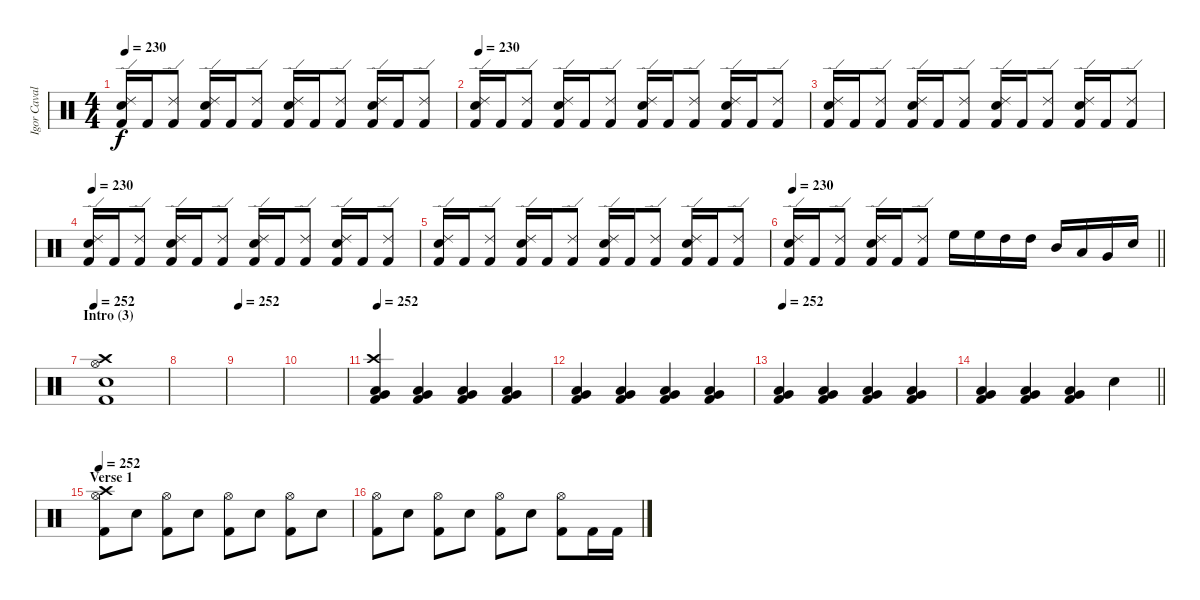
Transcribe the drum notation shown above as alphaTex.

\track ("Igor Cavalera" "Igor Caval") {instrument percussion}
\staff {score}
\articulation defaults
\ts (4 4)
\tempo 230
\clef neutral
\ks c
("Ride (edge) 2" "Electric Snare (hit)" "Kick (hit) 2").16{dy f} "Kick (hit) 2".16 ("Ride (edge) 2" "Kick (hit) 2").8 ("Ride (edge) 2" "Electric Snare (hit)" "Kick (hit) 2").16 "Kick (hit) 2".16 ("Ride (edge) 2" "Kick (hit) 2").8 ("Ride (edge) 2" "Electric Snare (hit)" "Kick (hit) 2").16 "Kick (hit) 2".16 ("Ride (edge) 2" "Kick (hit) 2").8 ("Ride (edge) 2" "Electric Snare (hit)" "Kick (hit) 2").16 "Kick (hit) 2".16 ("Ride (edge) 2" "Kick (hit) 2").8 |
\tempo 230
("Ride (edge) 2" "Electric Snare (hit)" "Kick (hit) 2").16 "Kick (hit) 2".16 ("Ride (edge) 2" "Kick (hit) 2").8 ("Ride (edge) 2" "Electric Snare (hit)" "Kick (hit) 2").16 "Kick (hit) 2".16 ("Ride (edge) 2" "Kick (hit) 2").8 ("Ride (edge) 2" "Electric Snare (hit)" "Kick (hit) 2").16 "Kick (hit) 2".16 ("Ride (edge) 2" "Kick (hit) 2").8 ("Ride (edge) 2" "Electric Snare (hit)" "Kick (hit) 2").16 "Kick (hit) 2".16 ("Ride (edge) 2" "Kick (hit) 2").8 |
("Ride (edge) 2" "Electric Snare (hit)" "Kick (hit) 2").16 "Kick (hit) 2".16 ("Ride (edge) 2" "Kick (hit) 2").8 ("Ride (edge) 2" "Electric Snare (hit)" "Kick (hit) 2").16 "Kick (hit) 2".16 ("Ride (edge) 2" "Kick (hit) 2").8 ("Ride (edge) 2" "Electric Snare (hit)" "Kick (hit) 2").16 "Kick (hit) 2".16 ("Ride (edge) 2" "Kick (hit) 2").8 ("Ride (edge) 2" "Electric Snare (hit)" "Kick (hit) 2").16 "Kick (hit) 2".16 ("Ride (edge) 2" "Kick (hit) 2").8 |
\tempo 230
("Ride (edge) 2" "Electric Snare (hit)" "Kick (hit) 2").16 "Kick (hit) 2".16 ("Ride (edge) 2" "Kick (hit) 2").8 ("Ride (edge) 2" "Electric Snare (hit)" "Kick (hit) 2").16 "Kick (hit) 2".16 ("Ride (edge) 2" "Kick (hit) 2").8 ("Ride (edge) 2" "Electric Snare (hit)" "Kick (hit) 2").16 "Kick (hit) 2".16 ("Ride (edge) 2" "Kick (hit) 2").8 ("Ride (edge) 2" "Electric Snare (hit)" "Kick (hit) 2").16 "Kick (hit) 2".16 ("Ride (edge) 2" "Kick (hit) 2").8 |
("Ride (edge) 2" "Electric Snare (hit)" "Kick (hit) 2").16 "Kick (hit) 2".16 ("Ride (edge) 2" "Kick (hit) 2").8 ("Ride (edge) 2" "Electric Snare (hit)" "Kick (hit) 2").16 "Kick (hit) 2".16 ("Ride (edge) 2" "Kick (hit) 2").8 ("Ride (edge) 2" "Electric Snare (hit)" "Kick (hit) 2").16 "Kick (hit) 2".16 ("Ride (edge) 2" "Kick (hit) 2").8 ("Ride (edge) 2" "Electric Snare (hit)" "Kick (hit) 2").16 "Kick (hit) 2".16 ("Ride (edge) 2" "Kick (hit) 2").8 |
\tempo 230
\barLineRight lightlight
("Ride (edge) 2" "Electric Snare (hit)" "Kick (hit) 2").16 "Kick (hit) 2".16 ("Ride (edge) 2" "Kick (hit) 2").8 ("Ride (edge) 2" "Electric Snare (hit)" "Kick (hit) 2").16 "Kick (hit) 2".16 ("Ride (edge) 2" "Kick (hit) 2").8 "High Floor Tom (hit)".16 "High Floor Tom (hit)".16 "High Tom (hit)".16 "High Tom (hit)".16 "Mid Tom (hit)".16 "Low Tom (hit)".16 "Very Low Tom (hit)".16 "Snare (hit) 2".16 |
\section ("" "Intro (3)")
\tempo 252
("Crash high (hit)" "Hi-Hat (open)" "Electric Snare (hit)" "Kick (hit) 2").1 |
|
\tempo 252
|
|
\tempo 252
("Crash high (hit)" "Very Low Tom (hit)" "Low Floor Tom (hit)" "Kick (hit) 2").4 ("Very Low Tom (hit)" "Low Floor Tom (hit)" "Kick (hit) 2").4 ("Very Low Tom (hit)" "Low Floor Tom (hit)" "Kick (hit) 2").4 ("Very Low Tom (hit)" "Low Floor Tom (hit)" "Kick (hit) 2").4 |
("Very Low Tom (hit)" "Low Floor Tom (hit)" "Kick (hit) 2").4 ("Very Low Tom (hit)" "Low Floor Tom (hit)" "Kick (hit) 2").4 ("Very Low Tom (hit)" "Low Floor Tom (hit)" "Kick (hit) 2").4 ("Very Low Tom (hit)" "Low Floor Tom (hit)" "Kick (hit) 2").4 |
\tempo 252
("Very Low Tom (hit)" "Low Floor Tom (hit)" "Kick (hit) 2").4 ("Very Low Tom (hit)" "Low Floor Tom (hit)" "Kick (hit) 2").4 ("Very Low Tom (hit)" "Low Floor Tom (hit)" "Kick (hit) 2").4 ("Very Low Tom (hit)" "Low Floor Tom (hit)" "Kick (hit) 2").4 |
\barLineRight lightlight
("Very Low Tom (hit)" "Low Floor Tom (hit)" "Kick (hit) 2").4 ("Very Low Tom (hit)" "Low Floor Tom (hit)" "Kick (hit) 2").4 ("Very Low Tom (hit)" "Low Floor Tom (hit)" "Kick (hit) 2").4 "Electric Snare (hit)".4 |
\section ("" "Verse 1")
\tempo 252
("Crash high (hit)" "Hi-Hat (open)" "Kick (hit) 2").8 "Electric Snare (hit)".8 ("Hi-Hat (open)" "Kick (hit) 2").8 "Electric Snare (hit)".8 ("Hi-Hat (open)" "Kick (hit) 2").8 "Electric Snare (hit)".8 ("Hi-Hat (open)" "Kick (hit) 2").8 "Electric Snare (hit)".8 |
("Hi-Hat (open)" "Kick (hit) 2").8 "Electric Snare (hit)".8 ("Hi-Hat (open)" "Kick (hit) 2").8 "Electric Snare (hit)".8 ("Hi-Hat (open)" "Kick (hit) 2").8 "Electric Snare (hit)".8 ("Hi-Hat (open)" "Kick (hit) 2").8 "Kick (hit) 2".16 "Kick (hit) 2".16
